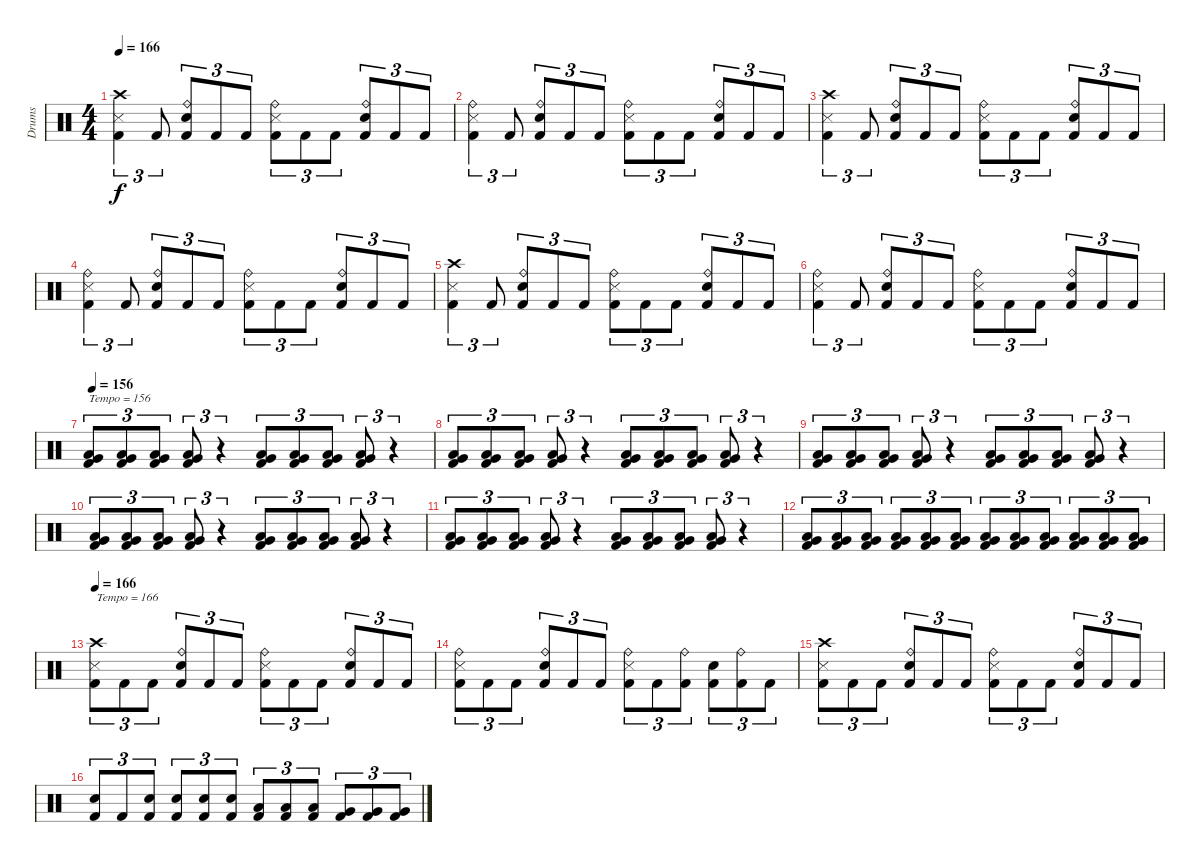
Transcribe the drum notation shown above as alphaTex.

\track ("Drums" "Drums") {instrument percussion}
\staff {score}
\articulation defaults
\ts (4 4)
\tempo 166
\clef neutral
\ks c
("Crash high (hit)" "Snare (side stick) 3" "Kick (hit) 2").4{tu (3 2) dy f} "Kick (hit) 2".8{tu (3 2)} ("Ride (bell)" "Electric Snare (hit)" "Kick (hit) 2").8{tu (3 2)} "Kick (hit) 2".8{tu (3 2)} "Kick (hit) 2".8{tu (3 2)} ("Ride (bell)" "Snare (side stick) 3" "Kick (hit) 2").8{tu (3 2)} "Kick (hit) 2".8{tu (3 2)} "Kick (hit) 2".8{tu (3 2)} ("Ride (bell)" "Electric Snare (hit)" "Kick (hit) 2").8{tu (3 2)} "Kick (hit) 2".8{tu (3 2)} "Kick (hit) 2".8{tu (3 2)} |
("Ride (bell)" "Snare (side stick) 3" "Kick (hit) 2").4{tu (3 2)} "Kick (hit) 2".8{tu (3 2)} ("Ride (bell)" "Electric Snare (hit)" "Kick (hit) 2").8{tu (3 2)} "Kick (hit) 2".8{tu (3 2)} "Kick (hit) 2".8{tu (3 2)} ("Ride (bell)" "Snare (side stick) 3" "Kick (hit) 2").8{tu (3 2)} "Kick (hit) 2".8{tu (3 2)} "Kick (hit) 2".8{tu (3 2)} ("Ride (bell)" "Electric Snare (hit)" "Kick (hit) 2").8{tu (3 2)} "Kick (hit) 2".8{tu (3 2)} "Kick (hit) 2".8{tu (3 2)} |
("Crash high (hit)" "Snare (side stick) 3" "Kick (hit) 2").4{tu (3 2)} "Kick (hit) 2".8{tu (3 2)} ("Ride (bell)" "Electric Snare (hit)" "Kick (hit) 2").8{tu (3 2)} "Kick (hit) 2".8{tu (3 2)} "Kick (hit) 2".8{tu (3 2)} ("Ride (bell)" "Snare (side stick) 3" "Kick (hit) 2").8{tu (3 2)} "Kick (hit) 2".8{tu (3 2)} "Kick (hit) 2".8{tu (3 2)} ("Ride (bell)" "Electric Snare (hit)" "Kick (hit) 2").8{tu (3 2)} "Kick (hit) 2".8{tu (3 2)} "Kick (hit) 2".8{tu (3 2)} |
("Ride (bell)" "Snare (side stick) 3" "Kick (hit) 2").4{tu (3 2)} "Kick (hit) 2".8{tu (3 2)} ("Ride (bell)" "Electric Snare (hit)" "Kick (hit) 2").8{tu (3 2)} "Kick (hit) 2".8{tu (3 2)} "Kick (hit) 2".8{tu (3 2)} ("Ride (bell)" "Snare (side stick) 3" "Kick (hit) 2").8{tu (3 2)} "Kick (hit) 2".8{tu (3 2)} "Kick (hit) 2".8{tu (3 2)} ("Ride (bell)" "Electric Snare (hit)" "Kick (hit) 2").8{tu (3 2)} "Kick (hit) 2".8{tu (3 2)} "Kick (hit) 2".8{tu (3 2)} |
("Crash high (hit)" "Snare (side stick) 3" "Kick (hit) 2").4{tu (3 2)} "Kick (hit) 2".8{tu (3 2)} ("Ride (bell)" "Electric Snare (hit)" "Kick (hit) 2").8{tu (3 2)} "Kick (hit) 2".8{tu (3 2)} "Kick (hit) 2".8{tu (3 2)} ("Ride (bell)" "Snare (side stick) 3" "Kick (hit) 2").8{tu (3 2)} "Kick (hit) 2".8{tu (3 2)} "Kick (hit) 2".8{tu (3 2)} ("Ride (bell)" "Electric Snare (hit)" "Kick (hit) 2").8{tu (3 2)} "Kick (hit) 2".8{tu (3 2)} "Kick (hit) 2".8{tu (3 2)} |
("Ride (bell)" "Snare (side stick) 3" "Kick (hit) 2").4{tu (3 2)} "Kick (hit) 2".8{tu (3 2)} ("Ride (bell)" "Electric Snare (hit)" "Kick (hit) 2").8{tu (3 2)} "Kick (hit) 2".8{tu (3 2)} "Kick (hit) 2".8{tu (3 2)} ("Ride (bell)" "Snare (side stick) 3" "Kick (hit) 2").8{tu (3 2)} "Kick (hit) 2".8{tu (3 2)} "Kick (hit) 2".8{tu (3 2)} ("Ride (bell)" "Electric Snare (hit)" "Kick (hit) 2").8{tu (3 2)} "Kick (hit) 2".8{tu (3 2)} "Kick (hit) 2".8{tu (3 2)} |
\tempo 156
("Very Low Tom (hit)" "Low Floor Tom (hit)" "Kick (hit) 2").8{tu (3 2) txt "Tempo = 156"} ("Very Low Tom (hit)" "Low Floor Tom (hit)" "Kick (hit) 2").8{tu (3 2)} ("Very Low Tom (hit)" "Low Floor Tom (hit)" "Kick (hit) 2").8{tu (3 2)} ("Very Low Tom (hit)" "Low Floor Tom (hit)" "Kick (hit) 2").8{tu (3 2)} r.4{tu (3 2)} ("Very Low Tom (hit)" "Low Floor Tom (hit)" "Kick (hit) 2").8{tu (3 2)} ("Very Low Tom (hit)" "Low Floor Tom (hit)" "Kick (hit) 2").8{tu (3 2)} ("Very Low Tom (hit)" "Low Floor Tom (hit)" "Kick (hit) 2").8{tu (3 2)} ("Very Low Tom (hit)" "Low Floor Tom (hit)" "Kick (hit) 2").8{tu (3 2)} r.4{tu (3 2)} |
("Very Low Tom (hit)" "Low Floor Tom (hit)" "Kick (hit) 2").8{tu (3 2)} ("Very Low Tom (hit)" "Low Floor Tom (hit)" "Kick (hit) 2").8{tu (3 2)} ("Very Low Tom (hit)" "Low Floor Tom (hit)" "Kick (hit) 2").8{tu (3 2)} ("Very Low Tom (hit)" "Low Floor Tom (hit)" "Kick (hit) 2").8{tu (3 2)} r.4{tu (3 2)} ("Very Low Tom (hit)" "Low Floor Tom (hit)" "Kick (hit) 2").8{tu (3 2)} ("Very Low Tom (hit)" "Low Floor Tom (hit)" "Kick (hit) 2").8{tu (3 2)} ("Very Low Tom (hit)" "Low Floor Tom (hit)" "Kick (hit) 2").8{tu (3 2)} ("Very Low Tom (hit)" "Low Floor Tom (hit)" "Kick (hit) 2").8{tu (3 2)} r.4{tu (3 2)} |
("Very Low Tom (hit)" "Low Floor Tom (hit)" "Kick (hit) 2").8{tu (3 2)} ("Very Low Tom (hit)" "Low Floor Tom (hit)" "Kick (hit) 2").8{tu (3 2)} ("Very Low Tom (hit)" "Low Floor Tom (hit)" "Kick (hit) 2").8{tu (3 2)} ("Very Low Tom (hit)" "Low Floor Tom (hit)" "Kick (hit) 2").8{tu (3 2)} r.4{tu (3 2)} ("Very Low Tom (hit)" "Low Floor Tom (hit)" "Kick (hit) 2").8{tu (3 2)} ("Very Low Tom (hit)" "Low Floor Tom (hit)" "Kick (hit) 2").8{tu (3 2)} ("Very Low Tom (hit)" "Low Floor Tom (hit)" "Kick (hit) 2").8{tu (3 2)} ("Very Low Tom (hit)" "Low Floor Tom (hit)" "Kick (hit) 2").8{tu (3 2)} r.4{tu (3 2)} |
("Very Low Tom (hit)" "Low Floor Tom (hit)" "Kick (hit) 2").8{tu (3 2)} ("Very Low Tom (hit)" "Low Floor Tom (hit)" "Kick (hit) 2").8{tu (3 2)} ("Very Low Tom (hit)" "Low Floor Tom (hit)" "Kick (hit) 2").8{tu (3 2)} ("Very Low Tom (hit)" "Low Floor Tom (hit)" "Kick (hit) 2").8{tu (3 2)} r.4{tu (3 2)} ("Very Low Tom (hit)" "Low Floor Tom (hit)" "Kick (hit) 2").8{tu (3 2)} ("Very Low Tom (hit)" "Low Floor Tom (hit)" "Kick (hit) 2").8{tu (3 2)} ("Very Low Tom (hit)" "Low Floor Tom (hit)" "Kick (hit) 2").8{tu (3 2)} ("Very Low Tom (hit)" "Low Floor Tom (hit)" "Kick (hit) 2").8{tu (3 2)} r.4{tu (3 2)} |
("Very Low Tom (hit)" "Low Floor Tom (hit)" "Kick (hit) 2").8{tu (3 2)} ("Very Low Tom (hit)" "Low Floor Tom (hit)" "Kick (hit) 2").8{tu (3 2)} ("Very Low Tom (hit)" "Low Floor Tom (hit)" "Kick (hit) 2").8{tu (3 2)} ("Very Low Tom (hit)" "Low Floor Tom (hit)" "Kick (hit) 2").8{tu (3 2)} r.4{tu (3 2)} ("Very Low Tom (hit)" "Low Floor Tom (hit)" "Kick (hit) 2").8{tu (3 2)} ("Very Low Tom (hit)" "Low Floor Tom (hit)" "Kick (hit) 2").8{tu (3 2)} ("Very Low Tom (hit)" "Low Floor Tom (hit)" "Kick (hit) 2").8{tu (3 2)} ("Very Low Tom (hit)" "Low Floor Tom (hit)" "Kick (hit) 2").8{tu (3 2)} r.4{tu (3 2)} |
("Very Low Tom (hit)" "Low Floor Tom (hit)" "Kick (hit) 2").8{tu (3 2)} ("Very Low Tom (hit)" "Low Floor Tom (hit)" "Kick (hit) 2").8{tu (3 2)} ("Very Low Tom (hit)" "Low Floor Tom (hit)" "Kick (hit) 2").8{tu (3 2)} ("Very Low Tom (hit)" "Low Floor Tom (hit)" "Kick (hit) 2").8{tu (3 2)} ("Very Low Tom (hit)" "Low Floor Tom (hit)" "Kick (hit) 2").8{tu (3 2)} ("Very Low Tom (hit)" "Low Floor Tom (hit)" "Kick (hit) 2").8{tu (3 2)} ("Very Low Tom (hit)" "Low Floor Tom (hit)" "Kick (hit) 2").8{tu (3 2)} ("Very Low Tom (hit)" "Low Floor Tom (hit)" "Kick (hit) 2").8{tu (3 2)} ("Very Low Tom (hit)" "Low Floor Tom (hit)" "Kick (hit) 2").8{tu (3 2)} ("Very Low Tom (hit)" "Low Floor Tom (hit)" "Kick (hit) 2").8{tu (3 2)} ("Very Low Tom (hit)" "Low Floor Tom (hit)" "Kick (hit) 2").8{tu (3 2)} ("Very Low Tom (hit)" "Low Floor Tom (hit)" "Kick (hit) 2").8{tu (3 2)} |
\tempo 166
("Crash high (hit)" "Snare (side stick) 3" "Kick (hit) 2").8{tu (3 2) txt "Tempo = 166"} "Kick (hit) 2".8{tu (3 2)} "Kick (hit) 2".8{tu (3 2)} ("Ride (bell)" "Electric Snare (hit)" "Kick (hit) 2").8{tu (3 2)} "Kick (hit) 2".8{tu (3 2)} "Kick (hit) 2".8{tu (3 2)} ("Ride (bell)" "Snare (side stick) 3" "Kick (hit) 2").8{tu (3 2)} "Kick (hit) 2".8{tu (3 2)} "Kick (hit) 2".8{tu (3 2)} ("Ride (bell)" "Electric Snare (hit)" "Kick (hit) 2").8{tu (3 2)} "Kick (hit) 2".8{tu (3 2)} "Kick (hit) 2".8{tu (3 2)} |
("Ride (bell)" "Snare (side stick) 3" "Kick (hit) 2").8{tu (3 2)} "Kick (hit) 2".8{tu (3 2)} "Kick (hit) 2".8{tu (3 2)} ("Ride (bell)" "Electric Snare (hit)" "Kick (hit) 2").8{tu (3 2)} "Kick (hit) 2".8{tu (3 2)} "Kick (hit) 2".8{tu (3 2)} ("Ride (bell)" "Snare (side stick) 3" "Kick (hit) 2").8{tu (3 2)} "Kick (hit) 2".8{tu (3 2)} ("Ride (bell)" "Kick (hit) 2").8{tu (3 2)} ("Electric Snare (hit)" "Kick (hit) 2").8{tu (3 2)} ("Ride (bell)" "Kick (hit) 2").8{tu (3 2)} "Kick (hit) 2".8{tu (3 2)} |
("Crash high (hit)" "Snare (side stick) 3" "Kick (hit) 2").8{tu (3 2)} "Kick (hit) 2".8{tu (3 2)} "Kick (hit) 2".8{tu (3 2)} ("Ride (bell)" "Electric Snare (hit)" "Kick (hit) 2").8{tu (3 2)} "Kick (hit) 2".8{tu (3 2)} "Kick (hit) 2".8{tu (3 2)} ("Ride (bell)" "Snare (side stick) 3" "Kick (hit) 2").8{tu (3 2)} "Kick (hit) 2".8{tu (3 2)} "Kick (hit) 2".8{tu (3 2)} ("Ride (bell)" "Electric Snare (hit)" "Kick (hit) 2").8{tu (3 2)} "Kick (hit) 2".8{tu (3 2)} "Kick (hit) 2".8{tu (3 2)} |
("Electric Snare (hit)" "Kick (hit) 2").8{tu (3 2)} "Kick (hit) 2".8{tu (3 2)} ("Electric Snare (hit)" "Kick (hit) 2").8{tu (3 2)} ("Electric Snare (hit)" "Kick (hit) 2").8{tu (3 2)} ("Electric Snare (hit)" "Kick (hit) 2").8{tu (3 2)} ("Electric Snare (hit)" "Kick (hit) 2").8{tu (3 2)} ("Low Floor Tom (hit)" "Kick (hit) 2").8{tu (3 2)} ("Low Floor Tom (hit)" "Kick (hit) 2").8{tu (3 2)} ("Low Floor Tom (hit)" "Kick (hit) 2").8{tu (3 2)} ("Very Low Tom (hit)" "Kick (hit) 2").8{tu (3 2)} ("Very Low Tom (hit)" "Kick (hit) 2").8{tu (3 2)} ("Very Low Tom (hit)" "Kick (hit) 2").8{tu (3 2)}
